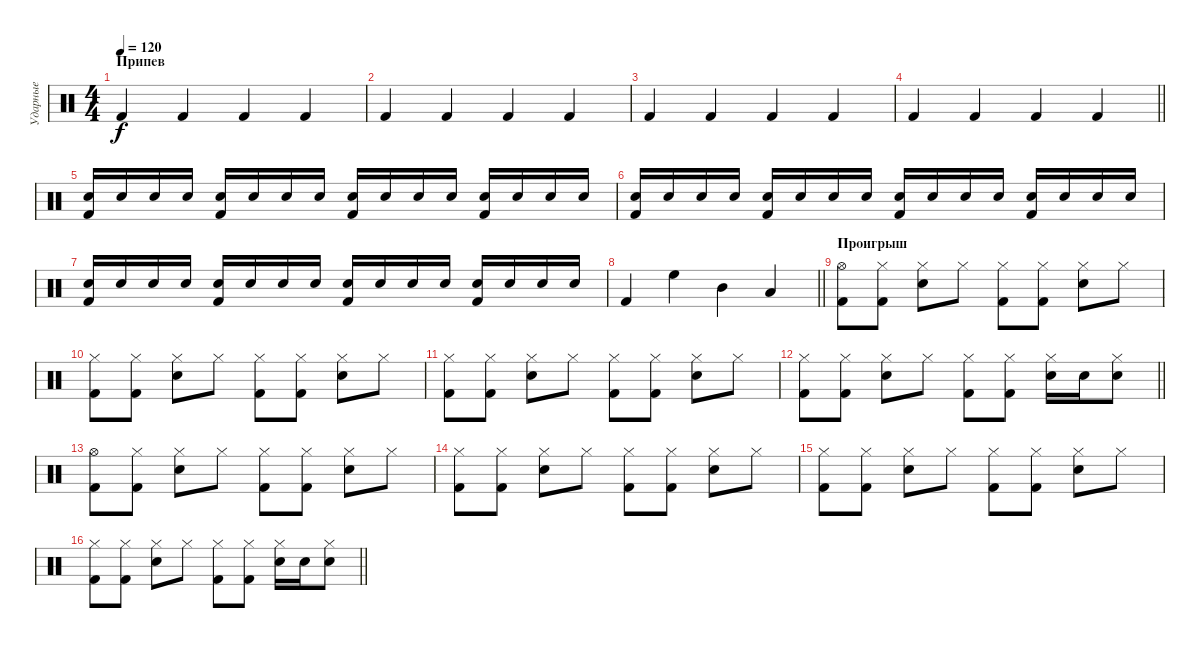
\track ("Ударные" "Ударные") {instrument percussion}
\staff {score}
\articulation defaults
\ts (4 4)
\section ("" "Припев")
\tempo 120
\clef neutral
\ks c "Kick (hit) 2".4{dy f} "Kick (hit) 2".4 "Kick (hit) 2".4 "Kick (hit) 2".4
|
"Kick (hit) 2".4 "Kick (hit) 2".4 "Kick (hit) 2".4 "Kick (hit) 2".4 |
"Kick (hit) 2".4 "Kick (hit) 2".4 "Kick (hit) 2".4 "Kick (hit) 2".4 |
\barLineRight lightlight "Kick (hit) 2".4 "Kick (hit) 2".4 "Kick (hit) 2".4 "Kick (hit) 2".4
|
\section ("" "")
("Kick (hit) 2" "Snare (hit) 2").16{volume 8} "Electric Snare (hit)".16 "Snare (hit) 2".16 "Electric Snare (hit)".16 ("Kick (hit) 2" "Snare (hit) 2").16 "Electric Snare (hit)".16 "Snare (hit) 2".16 "Electric Snare (hit)".16 ("Kick (hit) 2" "Snare (hit) 2").16{volume 9} "Electric Snare (hit)".16 "Snare (hit) 2".16 "Electric Snare (hit)".16 ("Kick (hit) 2" "Snare (hit) 2").16 "Electric Snare (hit)".16 "Snare (hit) 2".16 "Electric Snare (hit)".16 |
("Kick (hit) 2" "Snare (hit) 2").16{volume 10} "Electric Snare (hit)".16 "Snare (hit) 2".16 "Electric Snare (hit)".16 ("Kick (hit) 2" "Snare (hit) 2").16 "Electric Snare (hit)".16 "Snare (hit) 2".16 "Electric Snare (hit)".16 ("Kick (hit) 2" "Snare (hit) 2").16{volume 11} "Electric Snare (hit)".16 "Snare (hit) 2".16 "Electric Snare (hit)".16 ("Kick (hit) 2" "Snare (hit) 2").16 "Electric Snare (hit)".16 "Snare (hit) 2".16 "Electric Snare (hit)".16 |
("Kick (hit) 2" "Snare (hit) 2").16{volume 12} "Electric Snare (hit)".16 "Snare (hit) 2".16 "Electric Snare (hit)".16 ("Kick (hit) 2" "Snare (hit) 2").16 "Electric Snare (hit)".16 "Snare (hit) 2".16 "Electric Snare (hit)".16 ("Kick (hit) 2" "Snare (hit) 2").16{volume 13} "Electric Snare (hit)".16 "Snare (hit) 2".16 "Electric Snare (hit)".16 ("Kick (hit) 2" "Snare (hit) 2").16 "Electric Snare (hit)".16 "Snare (hit) 2".16 "Electric Snare (hit)".16 |
\barLineRight lightlight "Kick (hit) 2".4 "High Floor Tom (hit)".4 "Mid Tom (hit)".4 "Low Tom (hit)".4
|
\section ("" "Проигрыш")
("Hi-Hat (open)" "Kick (hit) 2").8 ("Hi-Hat (closed)" "Kick (hit) 2").8 ("Hi-Hat (closed)" "Electric Snare (hit)").8 "Hi-Hat (closed)".8 ("Hi-Hat (closed)" "Kick (hit) 2").8 ("Hi-Hat (closed)" "Kick (hit) 2").8 ("Hi-Hat (closed)" "Electric Snare (hit)").8 "Hi-Hat (closed)".8 |
("Hi-Hat (closed)" "Kick (hit) 2").8 ("Hi-Hat (closed)" "Kick (hit) 2").8 ("Hi-Hat (closed)" "Electric Snare (hit)").8 "Hi-Hat (closed)".8 ("Hi-Hat (closed)" "Kick (hit) 2").8 ("Hi-Hat (closed)" "Kick (hit) 2").8 ("Hi-Hat (closed)" "Electric Snare (hit)").8 "Hi-Hat (closed)".8 |
("Hi-Hat (closed)" "Kick (hit) 2").8 ("Hi-Hat (closed)" "Kick (hit) 2").8 ("Hi-Hat (closed)" "Electric Snare (hit)").8 "Hi-Hat (closed)".8 ("Hi-Hat (closed)" "Kick (hit) 2").8 ("Hi-Hat (closed)" "Kick (hit) 2").8 ("Hi-Hat (closed)" "Electric Snare (hit)").8 "Hi-Hat (closed)".8 |
\barLineRight lightlight
("Hi-Hat (closed)" "Kick (hit) 2").8 ("Hi-Hat (closed)" "Kick (hit) 2").8 ("Hi-Hat (closed)" "Electric Snare (hit)").8 "Hi-Hat (closed)".8 ("Hi-Hat (closed)" "Kick (hit) 2").8 ("Hi-Hat (closed)" "Kick (hit) 2").8 ("Hi-Hat (closed)" "Electric Snare (hit)").16 "Snare (hit) 2".16 ("Hi-Hat (closed)" "Electric Snare (hit)").8 |
\section ("" "")
("Hi-Hat (open)" "Kick (hit) 2").8 ("Hi-Hat (closed)" "Kick (hit) 2").8 ("Hi-Hat (closed)" "Electric Snare (hit)").8 "Hi-Hat (closed)".8 ("Hi-Hat (closed)" "Kick (hit) 2").8 ("Hi-Hat (closed)" "Kick (hit) 2").8 ("Hi-Hat (closed)" "Electric Snare (hit)").8 "Hi-Hat (closed)".8 |
("Hi-Hat (closed)" "Kick (hit) 2").8 ("Hi-Hat (closed)" "Kick (hit) 2").8 ("Hi-Hat (closed)" "Electric Snare (hit)").8 "Hi-Hat (closed)".8 ("Hi-Hat (closed)" "Kick (hit) 2").8 ("Hi-Hat (closed)" "Kick (hit) 2").8 ("Hi-Hat (closed)" "Electric Snare (hit)").8 "Hi-Hat (closed)".8 |
("Hi-Hat (closed)" "Kick (hit) 2").8 ("Hi-Hat (closed)" "Kick (hit) 2").8 ("Hi-Hat (closed)" "Electric Snare (hit)").8 "Hi-Hat (closed)".8 ("Hi-Hat (closed)" "Kick (hit) 2").8 ("Hi-Hat (closed)" "Kick (hit) 2").8 ("Hi-Hat (closed)" "Electric Snare (hit)").8 "Hi-Hat (closed)".8 |
\barLineRight lightlight
("Hi-Hat (closed)" "Kick (hit) 2").8 ("Hi-Hat (closed)" "Kick (hit) 2").8 ("Hi-Hat (closed)" "Electric Snare (hit)").8 "Hi-Hat (closed)".8 ("Hi-Hat (closed)" "Kick (hit) 2").8 ("Hi-Hat (closed)" "Kick (hit) 2").8 ("Hi-Hat (closed)" "Electric Snare (hit)").16 "Snare (hit) 2".16 ("Hi-Hat (closed)" "Electric Snare (hit)").8
